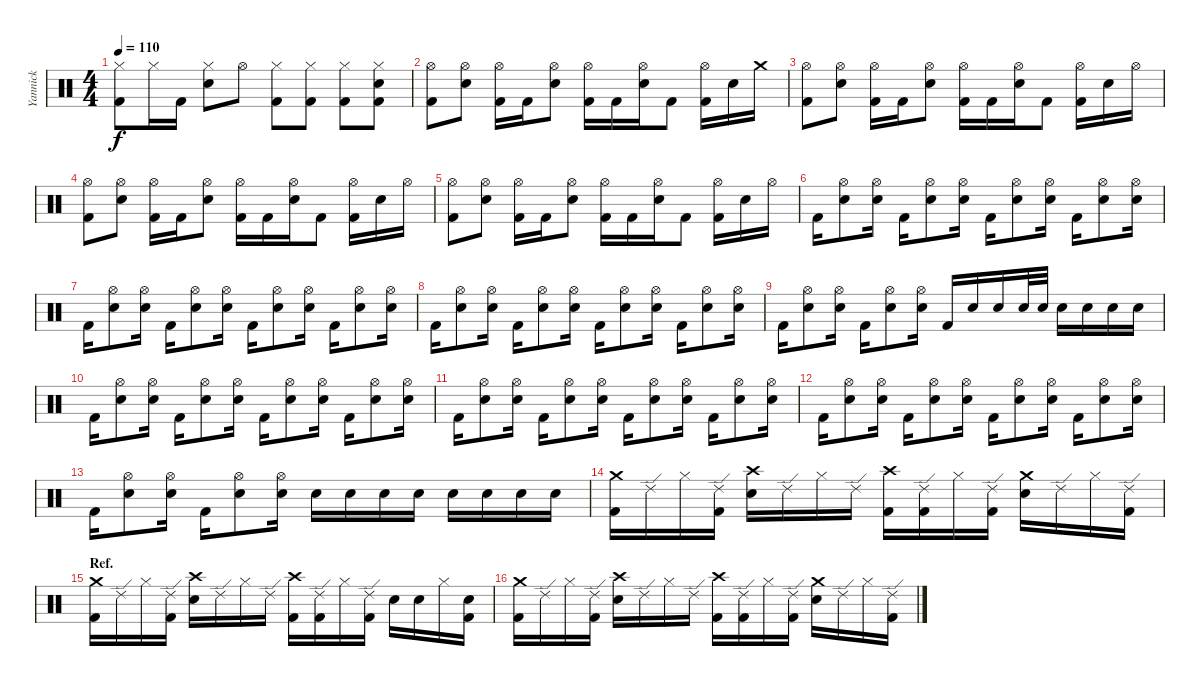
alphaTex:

\track ("Yannick" "Yannick") {instrument percussion}
\staff {score}
\articulation defaults
\ts (4 4)
\tempo 110
\clef neutral
\ks c
("Hi-Hat (closed)" "Kick (hit) 2").8{dy f} "Hi-Hat (closed)".16 "Kick (hit) 2".16 ("Hi-Hat (closed)" "Electric Snare (hit)").8 "Hi-Hat (open)".8 ("Hi-Hat (closed)" "Kick (hit) 2").8 ("Hi-Hat (closed)" "Kick (hit) 2").8 ("Hi-Hat (closed)" "Kick (hit) 2").8 ("Hi-Hat (closed)" "Electric Snare (hit)" "Kick (hit) 2").8 |
("Hi-Hat (open)" "Kick (hit) 2").8 ("Hi-Hat (open)" "Electric Snare (hit)").8 ("Hi-Hat (open)" "Kick (hit) 2").16 "Kick (hit) 2".16 ("Hi-Hat (open)" "Electric Snare (hit)").8 ("Hi-Hat (open)" "Kick (hit) 2").16 "Kick (hit) 2".16 ("Hi-Hat (open)" "Electric Snare (hit)").16 "Kick (hit) 2".8 ("Hi-Hat (open)" "Kick (hit) 2").16 "Electric Snare (hit)".16 "Crash medium (hit)".16 |
("Hi-Hat (open)" "Kick (hit) 2").8 ("Hi-Hat (open)" "Electric Snare (hit)").8 ("Hi-Hat (open)" "Kick (hit) 2").16 "Kick (hit) 2".16 ("Hi-Hat (open)" "Electric Snare (hit)").8 ("Hi-Hat (open)" "Kick (hit) 2").16 "Kick (hit) 2".16 ("Hi-Hat (open)" "Electric Snare (hit)").16 "Kick (hit) 2".8 ("Hi-Hat (open)" "Kick (hit) 2").16 "Electric Snare (hit)".16 "Hi-Hat (open)".16 |
("Hi-Hat (open)" "Kick (hit) 2").8 ("Hi-Hat (open)" "Electric Snare (hit)").8 ("Hi-Hat (open)" "Kick (hit) 2").16 "Kick (hit) 2".16 ("Hi-Hat (open)" "Electric Snare (hit)").8 ("Hi-Hat (open)" "Kick (hit) 2").16 "Kick (hit) 2".16 ("Hi-Hat (open)" "Electric Snare (hit)").16 "Kick (hit) 2".8 ("Hi-Hat (open)" "Kick (hit) 2").16 "Electric Snare (hit)".16 "Hi-Hat (open)".16 |
("Hi-Hat (open)" "Kick (hit) 2").8 ("Hi-Hat (open)" "Electric Snare (hit)").8 ("Hi-Hat (open)" "Kick (hit) 2").16 "Kick (hit) 2".16 ("Hi-Hat (open)" "Electric Snare (hit)").8 ("Hi-Hat (open)" "Kick (hit) 2").16 "Kick (hit) 2".16 ("Hi-Hat (open)" "Electric Snare (hit)").16 "Kick (hit) 2".8 ("Hi-Hat (open)" "Kick (hit) 2").16 "Electric Snare (hit)".16 "Hi-Hat (open)".16 |
"Kick (hit) 2".16 ("Hi-Hat (open)" "Electric Snare (hit)").8 ("Hi-Hat (open)" "Electric Snare (hit)").16 "Kick (hit) 2".16 ("Hi-Hat (open)" "Electric Snare (hit)").8 ("Hi-Hat (open)" "Electric Snare (hit)").16 "Kick (hit) 2".16 ("Hi-Hat (open)" "Electric Snare (hit)").8 ("Hi-Hat (open)" "Electric Snare (hit)").16 "Kick (hit) 2".16 ("Hi-Hat (open)" "Electric Snare (hit)").8 ("Hi-Hat (open)" "Electric Snare (hit)").16 |
"Kick (hit) 2".16 ("Hi-Hat (open)" "Electric Snare (hit)").8 ("Hi-Hat (open)" "Electric Snare (hit)").16 "Kick (hit) 2".16 ("Hi-Hat (open)" "Electric Snare (hit)").8 ("Hi-Hat (open)" "Electric Snare (hit)").16 "Kick (hit) 2".16 ("Hi-Hat (open)" "Electric Snare (hit)").8 ("Hi-Hat (open)" "Electric Snare (hit)").16 "Kick (hit) 2".16 ("Hi-Hat (open)" "Electric Snare (hit)").8 ("Hi-Hat (open)" "Electric Snare (hit)").16 |
"Kick (hit) 2".16 ("Hi-Hat (open)" "Electric Snare (hit)").8 ("Hi-Hat (open)" "Electric Snare (hit)").16 "Kick (hit) 2".16 ("Hi-Hat (open)" "Electric Snare (hit)").8 ("Hi-Hat (open)" "Electric Snare (hit)").16 "Kick (hit) 2".16 ("Hi-Hat (open)" "Electric Snare (hit)").8 ("Hi-Hat (open)" "Electric Snare (hit)").16 "Kick (hit) 2".16 ("Hi-Hat (open)" "Electric Snare (hit)").8 ("Hi-Hat (open)" "Electric Snare (hit)").16 |
"Kick (hit) 2".16 ("Hi-Hat (open)" "Electric Snare (hit)").8 ("Hi-Hat (open)" "Electric Snare (hit)").16 "Kick (hit) 2".16 ("Hi-Hat (open)" "Electric Snare (hit)").8 ("Hi-Hat (open)" "Electric Snare (hit)").16 "Kick (hit) 2".16 "Electric Snare (hit)".16 "Electric Snare (hit)".16 "Electric Snare (hit)".32 "Electric Snare (hit)".32 "Electric Snare (hit)".16 "Electric Snare (hit)".16 "Electric Snare (hit)".16 "Electric Snare (hit)".16 |
"Kick (hit) 2".16 ("Hi-Hat (open)" "Electric Snare (hit)").8 ("Hi-Hat (open)" "Electric Snare (hit)").16 "Kick (hit) 2".16 ("Hi-Hat (open)" "Electric Snare (hit)").8 ("Hi-Hat (open)" "Electric Snare (hit)").16 "Kick (hit) 2".16 ("Hi-Hat (open)" "Electric Snare (hit)").8 ("Hi-Hat (open)" "Electric Snare (hit)").16 "Kick (hit) 2".16 ("Hi-Hat (open)" "Electric Snare (hit)").8 ("Hi-Hat (open)" "Electric Snare (hit)").16 |
"Kick (hit) 2".16 ("Hi-Hat (open)" "Electric Snare (hit)").8 ("Hi-Hat (open)" "Electric Snare (hit)").16 "Kick (hit) 2".16 ("Hi-Hat (open)" "Electric Snare (hit)").8 ("Hi-Hat (open)" "Electric Snare (hit)").16 "Kick (hit) 2".16 ("Hi-Hat (open)" "Electric Snare (hit)").8 ("Hi-Hat (open)" "Electric Snare (hit)").16 "Kick (hit) 2".16 ("Hi-Hat (open)" "Electric Snare (hit)").8 ("Hi-Hat (open)" "Electric Snare (hit)").16 |
"Kick (hit) 2".16 ("Hi-Hat (open)" "Electric Snare (hit)").8 ("Hi-Hat (open)" "Electric Snare (hit)").16 "Kick (hit) 2".16 ("Hi-Hat (open)" "Electric Snare (hit)").8 ("Hi-Hat (open)" "Electric Snare (hit)").16 "Kick (hit) 2".16 ("Hi-Hat (open)" "Electric Snare (hit)").8 ("Hi-Hat (open)" "Electric Snare (hit)").16 "Kick (hit) 2".16 ("Hi-Hat (open)" "Electric Snare (hit)").8 ("Hi-Hat (open)" "Electric Snare (hit)").16 |
"Kick (hit) 2".16 ("Hi-Hat (open)" "Electric Snare (hit)").8 ("Hi-Hat (open)" "Electric Snare (hit)").16 "Kick (hit) 2".16 ("Hi-Hat (open)" "Electric Snare (hit)").8 ("Hi-Hat (open)" "Electric Snare (hit)").16 "Electric Snare (hit)".16 "Electric Snare (hit)".16 "Electric Snare (hit)".16 "Electric Snare (hit)".16 "Electric Snare (hit)".16 "Electric Snare (hit)".16 "Electric Snare (hit)".16 "Electric Snare (hit)".16 |
("Crash medium (hit)" "Kick (hit) 2").16 "Ride (edge) 2".16 "Hi-Hat (closed)".16 ("Ride (edge) 2" "Kick (hit) 2").16 ("Crash high (hit)" "Electric Snare (hit)").16 "Ride (edge) 2".16 "Hi-Hat (closed)".16 "Ride (edge) 2".16 ("Crash high (hit)" "Kick (hit) 2").16 ("Ride (edge) 2" "Kick (hit) 2").16 "Hi-Hat (closed)".16 ("Ride (edge) 2" "Kick (hit) 2").16 ("Crash medium (hit)" "Electric Snare (hit)").16 "Ride (edge) 2".16 "Hi-Hat (closed)".16 ("Ride (edge) 2" "Kick (hit) 2").16 |
\section ("" "Ref.")
("Crash medium (hit)" "Kick (hit) 2").16 "Ride (edge) 2".16 "Hi-Hat (closed)".16 ("Ride (edge) 2" "Kick (hit) 2").16 ("Crash high (hit)" "Electric Snare (hit)").16 "Ride (edge) 2".16 "Hi-Hat (closed)".16 "Ride (edge) 2".16 ("Crash high (hit)" "Kick (hit) 2").16 ("Ride (edge) 2" "Kick (hit) 2").16 "Hi-Hat (closed)".16 ("Ride (edge) 2" "Kick (hit) 2").16 "Electric Snare (hit)".16 "Electric Snare (hit)".16 "Hi-Hat (closed)".16 ("Electric Snare (hit)" "Kick (hit) 2").16 |
("Crash medium (hit)" "Kick (hit) 2").16 "Ride (edge) 2".16 "Hi-Hat (closed)".16 ("Ride (edge) 2" "Kick (hit) 2").16 ("Crash high (hit)" "Electric Snare (hit)").16 "Ride (edge) 2".16 "Hi-Hat (closed)".16 "Ride (edge) 2".16 ("Crash high (hit)" "Kick (hit) 2").16 ("Ride (edge) 2" "Kick (hit) 2").16 "Hi-Hat (closed)".16 ("Ride (edge) 2" "Kick (hit) 2").16 ("Crash medium (hit)" "Electric Snare (hit)").16 "Ride (edge) 2".16 "Hi-Hat (closed)".16 ("Ride (edge) 2" "Kick (hit) 2").16
